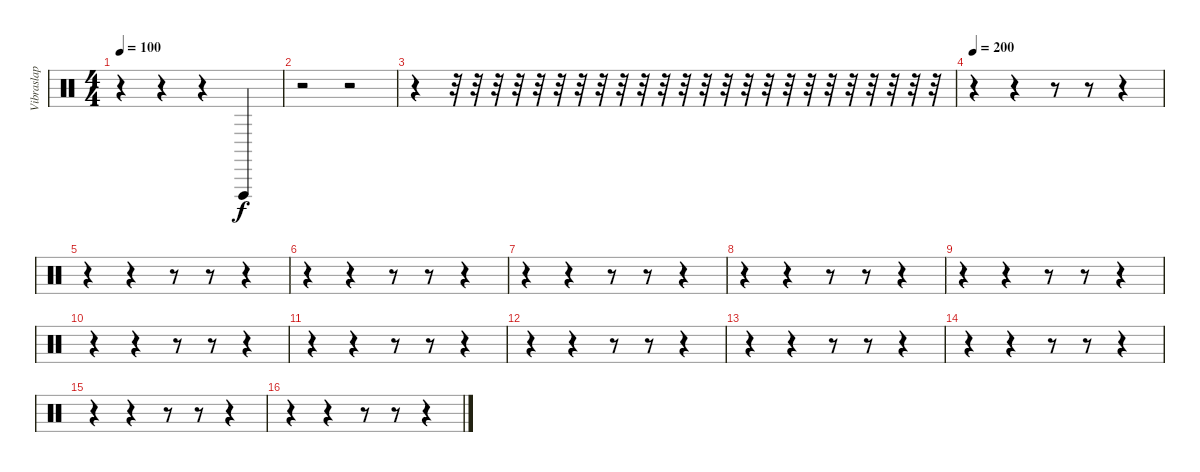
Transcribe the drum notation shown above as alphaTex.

\track ("Vibraslap" "Vibraslap") {instrument percussion}
\staff {score}
\articulation defaults
\ts (4 4)
\tempo 100
\clef neutral
\ks c
r.4{dy f} r.4 r.4 "Vibraslap (hit)".4 |
r.2 r.2 |
r.4 r.32 r.32 r.32 r.32 r.32 r.32 r.32 r.32 r.32 r.32 r.32 r.32 r.32 r.32 r.32 r.32 r.32 r.32 r.32 r.32 r.32 r.32 r.32 r.32 |
\tempo 200
r.4 r.4 r.8 r.8 r.4 |
r.4 r.4 r.8 r.8 r.4 |
r.4 r.4 r.8 r.8 r.4 |
r.4 r.4 r.8 r.8 r.4 |
r.4 r.4 r.8 r.8 r.4 |
r.4 r.4 r.8 r.8 r.4 |
r.4 r.4 r.8 r.8 r.4 |
r.4 r.4 r.8 r.8 r.4 |
r.4 r.4 r.8 r.8 r.4 |
r.4 r.4 r.8 r.8 r.4 |
r.4 r.4 r.8 r.8 r.4 |
r.4 r.4 r.8 r.8 r.4 |
r.4 r.4 r.8 r.8 r.4
